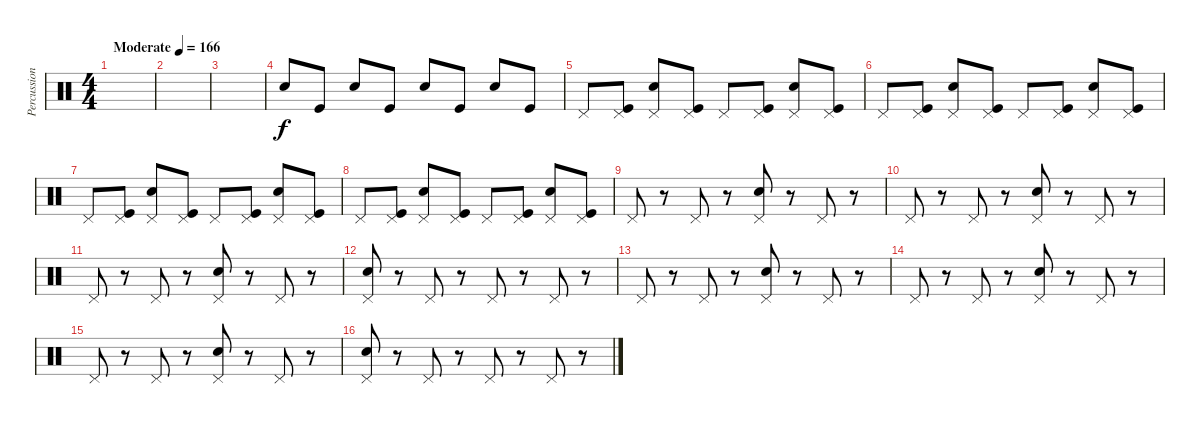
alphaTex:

\track ("Percussions" "Percussion") {instrument percussion}
\staff {score}
\articulation defaults
\ts (4 4)
\tempo (166 "Moderate")
\clef neutral
\ks c
|
|
|
"Snare (hit) 2".8 "Kick (hit)".8 "Snare (hit) 2".8 "Kick (hit)".8 "Snare (hit) 2".8 "Kick (hit)".8 "Snare (hit) 2".8 "Kick (hit)".8 |
"Pedal Hi-Hat (hit)".8 ("Pedal Hi-Hat (hit)" "Kick (hit)").8 ("Pedal Hi-Hat (hit)" "Snare (hit) 2").8 ("Pedal Hi-Hat (hit)" "Kick (hit)").8 "Pedal Hi-Hat (hit)".8 ("Pedal Hi-Hat (hit)" "Kick (hit)").8 ("Pedal Hi-Hat (hit)" "Snare (hit) 2").8 ("Pedal Hi-Hat (hit)" "Kick (hit)").8 |
"Pedal Hi-Hat (hit)".8 ("Pedal Hi-Hat (hit)" "Kick (hit)").8 ("Pedal Hi-Hat (hit)" "Snare (hit) 2").8 ("Pedal Hi-Hat (hit)" "Kick (hit)").8 "Pedal Hi-Hat (hit)".8 ("Pedal Hi-Hat (hit)" "Kick (hit)").8 ("Pedal Hi-Hat (hit)" "Snare (hit) 2").8 ("Pedal Hi-Hat (hit)" "Kick (hit)").8 |
"Pedal Hi-Hat (hit)".8 ("Pedal Hi-Hat (hit)" "Kick (hit)").8 ("Pedal Hi-Hat (hit)" "Snare (hit) 2").8 ("Pedal Hi-Hat (hit)" "Kick (hit)").8 "Pedal Hi-Hat (hit)".8 ("Pedal Hi-Hat (hit)" "Kick (hit)").8 ("Pedal Hi-Hat (hit)" "Snare (hit) 2").8 ("Pedal Hi-Hat (hit)" "Kick (hit)").8 |
"Pedal Hi-Hat (hit)".8 ("Pedal Hi-Hat (hit)" "Kick (hit)").8 ("Pedal Hi-Hat (hit)" "Snare (hit) 2").8 ("Pedal Hi-Hat (hit)" "Kick (hit)").8 "Pedal Hi-Hat (hit)".8 ("Pedal Hi-Hat (hit)" "Kick (hit)").8 ("Pedal Hi-Hat (hit)" "Snare (hit) 2").8 ("Pedal Hi-Hat (hit)" "Kick (hit)").8 |
"Pedal Hi-Hat (hit)".8 r.8 "Pedal Hi-Hat (hit)".8 r.8 ("Snare (hit) 2" "Pedal Hi-Hat (hit)").8 r.8 "Pedal Hi-Hat (hit)".8 r.8 |
"Pedal Hi-Hat (hit)".8 r.8 "Pedal Hi-Hat (hit)".8 r.8 ("Snare (hit) 2" "Pedal Hi-Hat (hit)").8 r.8 "Pedal Hi-Hat (hit)".8 r.8 |
"Pedal Hi-Hat (hit)".8 r.8 "Pedal Hi-Hat (hit)".8 r.8 ("Snare (hit) 2" "Pedal Hi-Hat (hit)").8 r.8 "Pedal Hi-Hat (hit)".8 r.8 |
("Snare (hit) 2" "Pedal Hi-Hat (hit)").8 r.8 "Pedal Hi-Hat (hit)".8 r.8 "Pedal Hi-Hat (hit)".8 r.8 "Pedal Hi-Hat (hit)".8 r.8 |
"Pedal Hi-Hat (hit)".8 r.8 "Pedal Hi-Hat (hit)".8 r.8 ("Snare (hit) 2" "Pedal Hi-Hat (hit)").8 r.8 "Pedal Hi-Hat (hit)".8 r.8 |
"Pedal Hi-Hat (hit)".8 r.8 "Pedal Hi-Hat (hit)".8 r.8 ("Snare (hit) 2" "Pedal Hi-Hat (hit)").8 r.8 "Pedal Hi-Hat (hit)".8 r.8 |
"Pedal Hi-Hat (hit)".8 r.8 "Pedal Hi-Hat (hit)".8 r.8 ("Snare (hit) 2" "Pedal Hi-Hat (hit)").8 r.8 "Pedal Hi-Hat (hit)".8 r.8 |
("Snare (hit) 2" "Pedal Hi-Hat (hit)").8 r.8 "Pedal Hi-Hat (hit)".8 r.8 "Pedal Hi-Hat (hit)".8 r.8 "Pedal Hi-Hat (hit)".8 r.8
